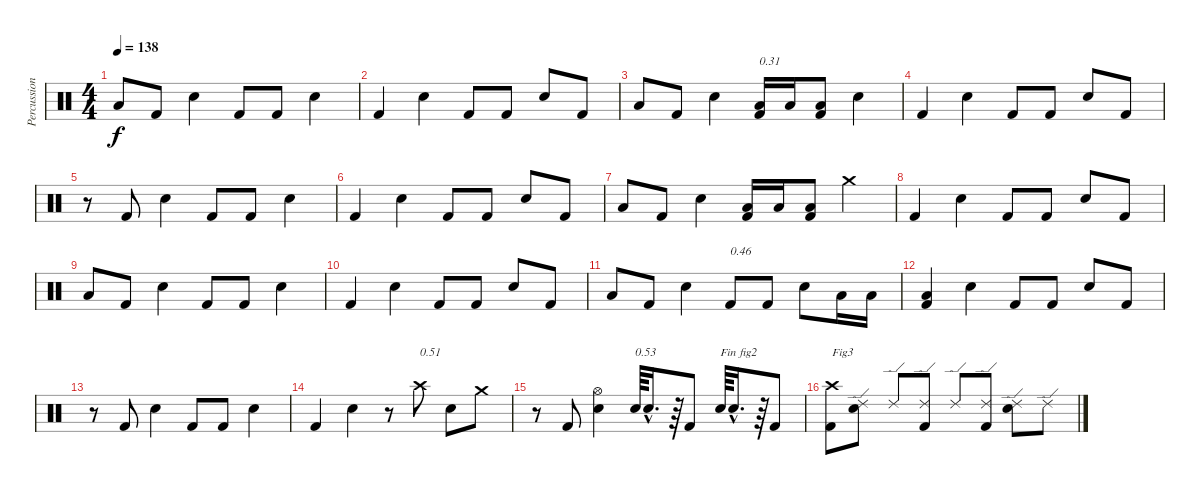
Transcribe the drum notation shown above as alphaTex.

\track ("Percussions" "Percussion") {instrument percussion}
\staff {score}
\articulation defaults
\ts (4 4)
\tempo 138
\clef neutral
\ks c "Low Floor Tom (hit)".8{dy f} "Kick (hit) 2".8 "Electric Snare (hit)".4 "Kick (hit) 2".8 "Kick (hit) 2".8 "Electric Snare (hit)".4
|
"Kick (hit) 2".4 "Electric Snare (hit)".4 "Kick (hit) 2".8 "Kick (hit) 2".8 "Electric Snare (hit)".8 "Kick (hit) 2".8 |
"Low Floor Tom (hit)".8 "Kick (hit) 2".8 "Electric Snare (hit)".4 ("Kick (hit) 2" "Low Floor Tom (hit)").16{txt "0.31"} "Low Floor Tom (hit)".16 ("Kick (hit) 2" "Low Floor Tom (hit)").8 "Electric Snare (hit)".4 |
"Kick (hit) 2".4 "Electric Snare (hit)".4 "Kick (hit) 2".8 "Kick (hit) 2".8 "Electric Snare (hit)".8 "Kick (hit) 2".8 |
r.8 "Kick (hit) 2".8 "Electric Snare (hit)".4 "Kick (hit) 2".8 "Kick (hit) 2".8 "Electric Snare (hit)".4 |
"Kick (hit) 2".4 "Electric Snare (hit)".4 "Kick (hit) 2".8 "Kick (hit) 2".8 "Electric Snare (hit)".8 "Kick (hit) 2".8 |
"Low Floor Tom (hit)".8 "Kick (hit) 2".8 "Electric Snare (hit)".4 ("Kick (hit) 2" "Low Floor Tom (hit)").16 "Low Floor Tom (hit)".16 ("Kick (hit) 2" "Low Floor Tom (hit)").8 "Crash medium (hit)".4 |
"Kick (hit) 2".4 "Electric Snare (hit)".4 "Kick (hit) 2".8 "Kick (hit) 2".8 "Electric Snare (hit)".8 "Kick (hit) 2".8 |
"Low Floor Tom (hit)".8 "Kick (hit) 2".8 "Electric Snare (hit)".4 "Kick (hit) 2".8 "Kick (hit) 2".8 "Electric Snare (hit)".4 |
"Kick (hit) 2".4 "Electric Snare (hit)".4 "Kick (hit) 2".8 "Kick (hit) 2".8 "Electric Snare (hit)".8 "Kick (hit) 2".8 |
"Low Floor Tom (hit)".8 "Kick (hit) 2".8 "Electric Snare (hit)".4 "Kick (hit) 2".8{txt "0.46"} "Kick (hit) 2".8 "Electric Snare (hit)".8 "Low Floor Tom (hit)".16 "Low Floor Tom (hit)".16 |
("Kick (hit) 2" "Low Floor Tom (hit)").4 "Electric Snare (hit)".4 "Kick (hit) 2".8 "Kick (hit) 2".8 "Electric Snare (hit)".8 "Kick (hit) 2".8 |
r.8 "Kick (hit) 2".8 "Electric Snare (hit)".4 "Kick (hit) 2".8 "Kick (hit) 2".8 "Electric Snare (hit)".4 |
"Kick (hit) 2".4 "Electric Snare (hit)".4 r.8 "Crash high (hit)".8{txt "0.51"} "Electric Snare (hit)".8 "Crash medium (hit)".8 |
r.8 "Kick (hit) 2".8 ("Electric Snare (hit)" "Hi-Hat (open)").4 "Electric Snare (hit)".64{txt "0.53"} "Electric Snare (hit)"{hac}.16{d} r.64 "Kick (hit) 2".8 "Electric Snare (hit)".64{txt "Fin fig2"} "Electric Snare (hit)"{hac}.16{d} r.64 "Kick (hit) 2".8 |
("Kick (hit) 2" "Crash high (hit)").8{txt "Fig3"} ("Electric Snare (hit)" "Ride (edge) 2").8 "Ride (edge) 2".8 ("Kick (hit) 2" "Ride (edge) 2").8 "Ride (edge) 2".8 ("Kick (hit) 2" "Ride (edge) 2").8 ("Electric Snare (hit)" "Ride (edge) 2").8 "Ride (edge) 2".8
